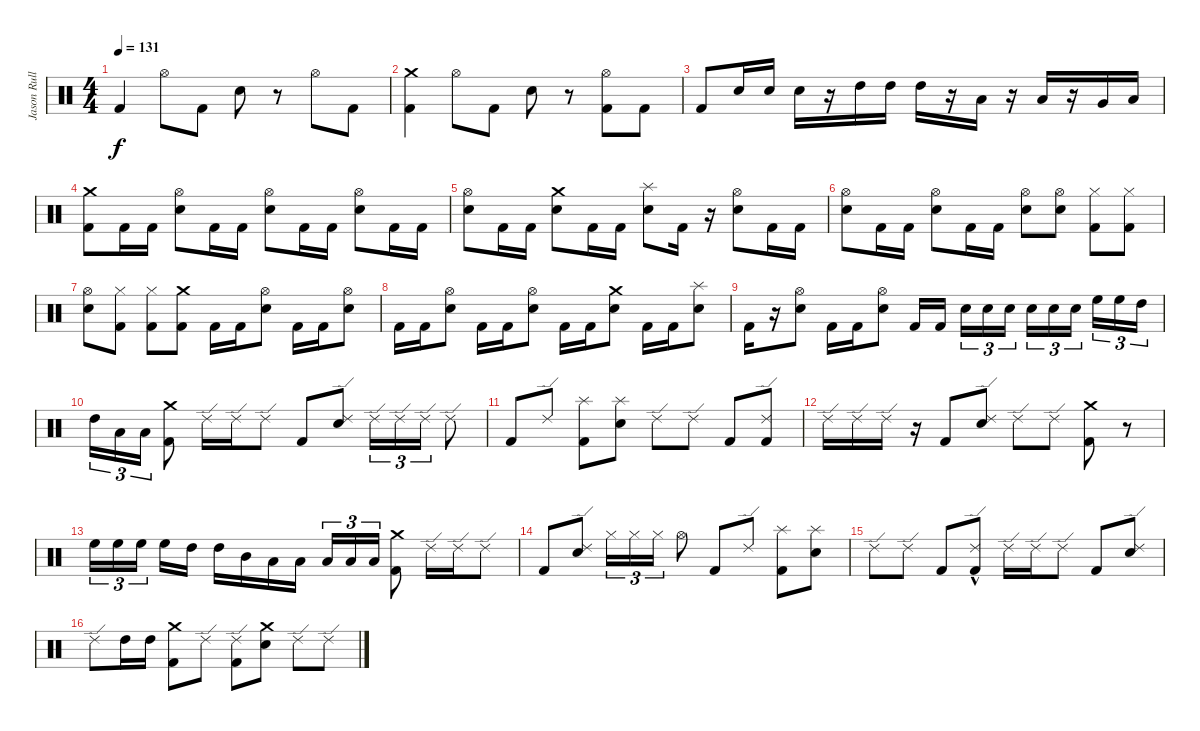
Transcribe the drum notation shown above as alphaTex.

\track ("Jason Rullo (Drums)" "Jason Rull") {instrument percussion}
\staff {score}
\articulation defaults
\ts (4 4)
\tempo 131
\clef neutral
\ks c "Kick (hit) 2".4{dy f} "Hi-Hat (open)".8 "Kick (hit) 2".8 "Electric Snare (hit)".8
r.8 "Hi-Hat (open)".8 "Kick (hit) 2".8 |
("Crash medium (hit)" "Kick (hit) 2").4 "Hi-Hat (open)".8 "Kick (hit) 2".8 "Electric Snare (hit)".8 r.8 ("Kick (hit) 2" "Hi-Hat (open)").8 "Kick (hit) 2".8 |
"Kick (hit) 2".8 "Electric Snare (hit)".16 "Electric Snare (hit)".16 "Electric Snare (hit)".16 r.16 "High Tom (hit)".16 "High Tom (hit)".16 "High Tom (hit)".16 r.16 "Low Tom (hit)".16 r.16 "Low Tom (hit)".16 r.16 "Very Low Tom (hit)".16 "Low Floor Tom (hit)".16 |
("Crash medium (hit)" "Kick (hit) 2").8 "Kick (hit) 2".16 "Kick (hit) 2".16 ("Hi-Hat (open)" "Electric Snare (hit)").8 "Kick (hit) 2".16 "Kick (hit) 2".16 ("Hi-Hat (open)" "Electric Snare (hit)").8 "Kick (hit) 2".16 "Kick (hit) 2".16 ("Hi-Hat (open)" "Electric Snare (hit)").8 "Kick (hit) 2".16 "Kick (hit) 2".16 |
("Hi-Hat (open)" "Electric Snare (hit)").8 "Kick (hit) 2".16 "Kick (hit) 2".16 ("Crash medium (hit)" "Electric Snare (hit)").8 "Kick (hit) 2".16 "Kick (hit) 2".16 ("Splash (hit)" "Electric Snare (hit)").8 "Kick (hit) 2".16 r.16 ("Electric Snare (hit)" "Hi-Hat (open)").8 "Kick (hit) 2".16 "Kick (hit) 2".16 |
("Electric Snare (hit)" "Hi-Hat (open)").8 "Kick (hit) 2".16 "Kick (hit) 2".16 ("Electric Snare (hit)" "Hi-Hat (open)").8 "Kick (hit) 2".16 "Kick (hit) 2".16 ("Electric Snare (hit)" "Hi-Hat (open)").8 ("Hi-Hat (open)" "Electric Snare (hit)").8 ("Hi-Hat (closed)" "Kick (hit) 2").8 ("Hi-Hat (closed)" "Kick (hit) 2").8 |
("Hi-Hat (open)" "Electric Snare (hit)").8 ("Hi-Hat (closed)" "Kick (hit) 2").8 ("Hi-Hat (closed)" "Kick (hit) 2").8 ("Crash medium (hit)" "Kick (hit) 2").8 "Kick (hit) 2".16 "Kick (hit) 2".16 ("Hi-Hat (open)" "Electric Snare (hit)").8 "Kick (hit) 2".16 "Kick (hit) 2".16 ("Hi-Hat (open)" "Electric Snare (hit)").8 |
"Kick (hit) 2".16 "Kick (hit) 2".16 ("Hi-Hat (open)" "Electric Snare (hit)").8 "Kick (hit) 2".16 "Kick (hit) 2".16 ("Hi-Hat (open)" "Electric Snare (hit)").8 "Kick (hit) 2".16 "Kick (hit) 2".16 ("Crash medium (hit)" "Electric Snare (hit)").8 "Kick (hit) 2".16 "Kick (hit) 2".16 ("Splash (hit)" "Electric Snare (hit)").8 |
"Kick (hit) 2".16 r.16 ("Electric Snare (hit)" "Hi-Hat (open)").8 "Kick (hit) 2".16 "Kick (hit) 2".16 ("Electric Snare (hit)" "Hi-Hat (open)").8 "Kick (hit) 2".16 "Kick (hit) 2".16 "Electric Snare (hit)".16{tu (3 2) volume 9} "Electric Snare (hit)".16{tu (3 2) volume 10} "Electric Snare (hit)".16{tu (3 2) volume 11} "Electric Snare (hit)".16{tu (3 2) volume 12} "Electric Snare (hit)".16{tu (3 2) volume 14} "Electric Snare (hit)".16{tu (3 2) volume 15} "High Floor Tom (hit)".16{tu (3 2) volume 16} "High Floor Tom (hit)".16{tu (3 2)} "High Tom (hit)".16{tu (3 2)} |
"High Tom (hit)".16{tu (3 2)} "Low Tom (hit)".16{tu (3 2)} "Low Tom (hit)".16{tu (3 2)} ("Crash medium (hit)" "Kick (hit) 2").8 "Ride (edge) 2".16 "Ride (edge) 2".16 "Ride (edge) 2".8 "Kick (hit) 2".8 ("Ride (edge) 2" "Electric Snare (hit)").8 "Ride (edge) 2".16{tu (3 2) volume 11} "Ride (edge) 2".16{tu (3 2) volume 13} "Ride (edge) 2".16{tu (3 2) volume 14} "Ride (edge) 2".8{volume 16} |
"Kick (hit) 2".8 "Ride (edge) 2".8 ("Splash (hit)" "Kick (hit) 2").8 ("Splash (hit)" "Electric Snare (hit)").8 "Ride (edge) 2".8 "Ride (edge) 2".8 "Kick (hit) 2".8 ("Ride (edge) 2" "Kick (hit) 2").8 |
"Ride (edge) 2".16 "Ride (edge) 2".16 "Ride (edge) 2".16 r.16 "Kick (hit) 2".8 ("Ride (edge) 2" "Electric Snare (hit)").8 "Ride (edge) 2".8 "Ride (edge) 2".8 ("Crash medium (hit)" "Kick (hit) 2").8 r.8 |
"High Floor Tom (hit)".16{tu (3 2) volume 11} "High Floor Tom (hit)".16{tu (3 2) volume 12} "High Floor Tom (hit)".16{tu (3 2) volume 12} "High Floor Tom (hit)".16{volume 12} "High Tom (hit)".16{volume 13} "High Tom (hit)".16{volume 13} "Mid Tom (hit)".16{volume 14} "Low Tom (hit)".16{volume 14} "Low Tom (hit)".16{volume 15} "Low Tom (hit)".16{tu (3 2) volume 15} "Low Tom (hit)".16{tu (3 2) volume 16} "Low Tom (hit)".16{tu (3 2) volume 16} ("Crash medium (hit)" "Kick (hit) 2").8 "Ride (edge) 2".16 "Ride (edge) 2".16 "Ride (edge) 2".8 |
"Kick (hit) 2".8 ("Ride (edge) 2" "Electric Snare (hit)").8 "Hi-Hat (closed)".16{tu (3 2) volume 11} "Hi-Hat (closed)".16{tu (3 2) volume 13} "Hi-Hat (closed)".16{tu (3 2) volume 14} "Hi-Hat (open)".8{volume 16} "Kick (hit) 2".8 "Ride (edge) 2".8 ("Splash (hit)" "Kick (hit) 2").8 ("Splash (hit)" "Electric Snare (hit)").8 |
"Ride (edge) 2".8 "Ride (edge) 2".8 "Kick (hit) 2".8 ("Ride (edge) 2" "Kick (hit) 2"{hac}).8 "Ride (edge) 2".16 "Ride (edge) 2".16 "Ride (edge) 2".8 "Kick (hit) 2".8 ("Ride (edge) 2" "Electric Snare (hit)").8 |
"Ride (edge) 2".8 "High Tom (hit)".16 "High Tom (hit)".16 ("Crash medium (hit)" "Kick (hit) 2").8 "Ride (edge) 2".8 ("Ride (edge) 2" "Kick (hit) 2").8 ("Crash medium (hit)" "Electric Snare (hit)").8 "Ride (edge) 2".8 "Ride (edge) 2".8
